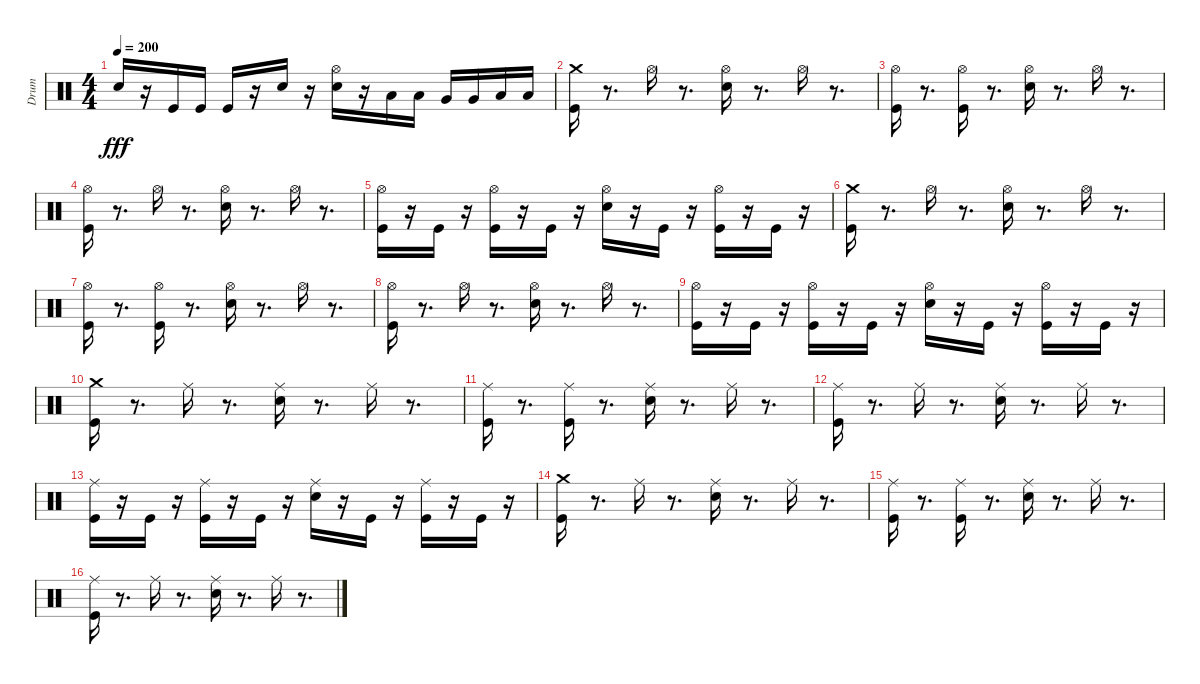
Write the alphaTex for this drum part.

\track ("Drum" "Drum") {instrument percussion}
\staff {score}
\articulation defaults
\ts (4 4)
\tempo 200
\clef neutral
\ks c "Snare (hit) 2".16{dy fff}
r.16 "Kick (hit)".16 "Kick (hit)".16 "Kick (hit)".16 r.16 "Snare (hit) 2".16 r.16 ("Hi-Hat (open)" "Snare (hit) 2").16 r.16 "Low Tom (hit)".16 "Low Tom (hit)".16 "Very Low Tom (hit)".16 "Very Low Tom (hit)".16 "Low Floor Tom (hit)".16 "Low Floor Tom (hit)".16 |
("Kick (hit)" "Crash medium (hit)").16 r.8{d} "Hi-Hat (open)".16 r.8{d} ("Hi-Hat (open)" "Snare (hit) 2").16 r.8{d} "Hi-Hat (open)".16 r.8{d} |
("Kick (hit)" "Hi-Hat (open)").16 r.8{d} ("Hi-Hat (open)" "Kick (hit)").16 r.8{d} ("Snare (hit) 2" "Hi-Hat (open)").16 r.8{d} "Hi-Hat (open)".16 r.8{d} |
("Kick (hit)" "Hi-Hat (open)").16 r.8{d} "Hi-Hat (open)".16 r.8{d} ("Hi-Hat (open)" "Snare (hit) 2").16 r.8{d} "Hi-Hat (open)".16 r.8{d} |
("Hi-Hat (open)" "Kick (hit)").16 r.16 "Kick (hit)".16 r.16 ("Hi-Hat (open)" "Kick (hit)").16 r.16 "Kick (hit)".16 r.16 ("Snare (hit) 2" "Hi-Hat (open)").16 r.16 "Kick (hit)".16 r.16 ("Hi-Hat (open)" "Kick (hit)").16 r.16 "Kick (hit)".16 r.16 |
("Kick (hit)" "Crash medium (hit)").16 r.8{d} "Hi-Hat (open)".16 r.8{d} ("Hi-Hat (open)" "Snare (hit) 2").16 r.8{d} "Hi-Hat (open)".16 r.8{d} |
("Kick (hit)" "Hi-Hat (open)").16 r.8{d} ("Hi-Hat (open)" "Kick (hit)").16 r.8{d} ("Snare (hit) 2" "Hi-Hat (open)").16 r.8{d} "Hi-Hat (open)".16 r.8{d} |
("Kick (hit)" "Hi-Hat (open)").16 r.8{d} "Hi-Hat (open)".16 r.8{d} ("Snare (hit) 2" "Hi-Hat (open)").16 r.8{d} "Hi-Hat (open)".16 r.8{d} |
("Kick (hit)" "Hi-Hat (open)").16 r.16 "Kick (hit)".16 r.16 ("Kick (hit)" "Hi-Hat (open)").16 r.16 "Kick (hit)".16 r.16 ("Snare (hit) 2" "Hi-Hat (open)").16 r.16 "Kick (hit)".16 r.16 ("Hi-Hat (open)" "Kick (hit)").16 r.16 "Kick (hit)".16 r.16 |
("Crash medium (hit)" "Kick (hit)").16 r.8{d} "Ride (middle)".16 r.8{d} ("Ride (middle)" "Snare (hit) 2").16 r.8{d} "Ride (middle)".16 r.8{d} |
("Ride (middle)" "Kick (hit)").16 r.8{d} ("Kick (hit)" "Ride (middle)").16 r.8{d} ("Ride (middle)" "Snare (hit) 2").16 r.8{d} "Ride (middle)".16 r.8{d} |
("Ride (middle)" "Kick (hit)").16 r.8{d} "Ride (middle)".16 r.8{d} ("Snare (hit) 2" "Ride (middle)").16 r.8{d} "Ride (middle)".16 r.8{d} |
("Kick (hit)" "Ride (middle)").16 r.16 "Kick (hit)".16 r.16 ("Kick (hit)" "Ride (middle)").16 r.16 "Kick (hit)".16 r.16 ("Snare (hit) 2" "Ride (middle)").16 r.16 "Kick (hit)".16 r.16 ("Kick (hit)" "Ride (middle)").16 r.16 "Kick (hit)".16 r.16 |
("Kick (hit)" "Crash medium (hit)").16 r.8{d} "Ride (middle)".16 r.8{d} ("Ride (middle)" "Snare (hit) 2").16 r.8{d} "Ride (middle)".16 r.8{d} |
("Kick (hit)" "Ride (middle)").16 r.8{d} ("Ride (middle)" "Kick (hit)").16 r.8{d} ("Snare (hit) 2" "Ride (middle)").16 r.8{d} "Ride (middle)".16 r.8{d} |
("Kick (hit)" "Ride (middle)").16 r.8{d} "Ride (middle)".16 r.8{d} ("Snare (hit) 2" "Ride (middle)").16 r.8{d} "Ride (middle)".16 r.8{d}
